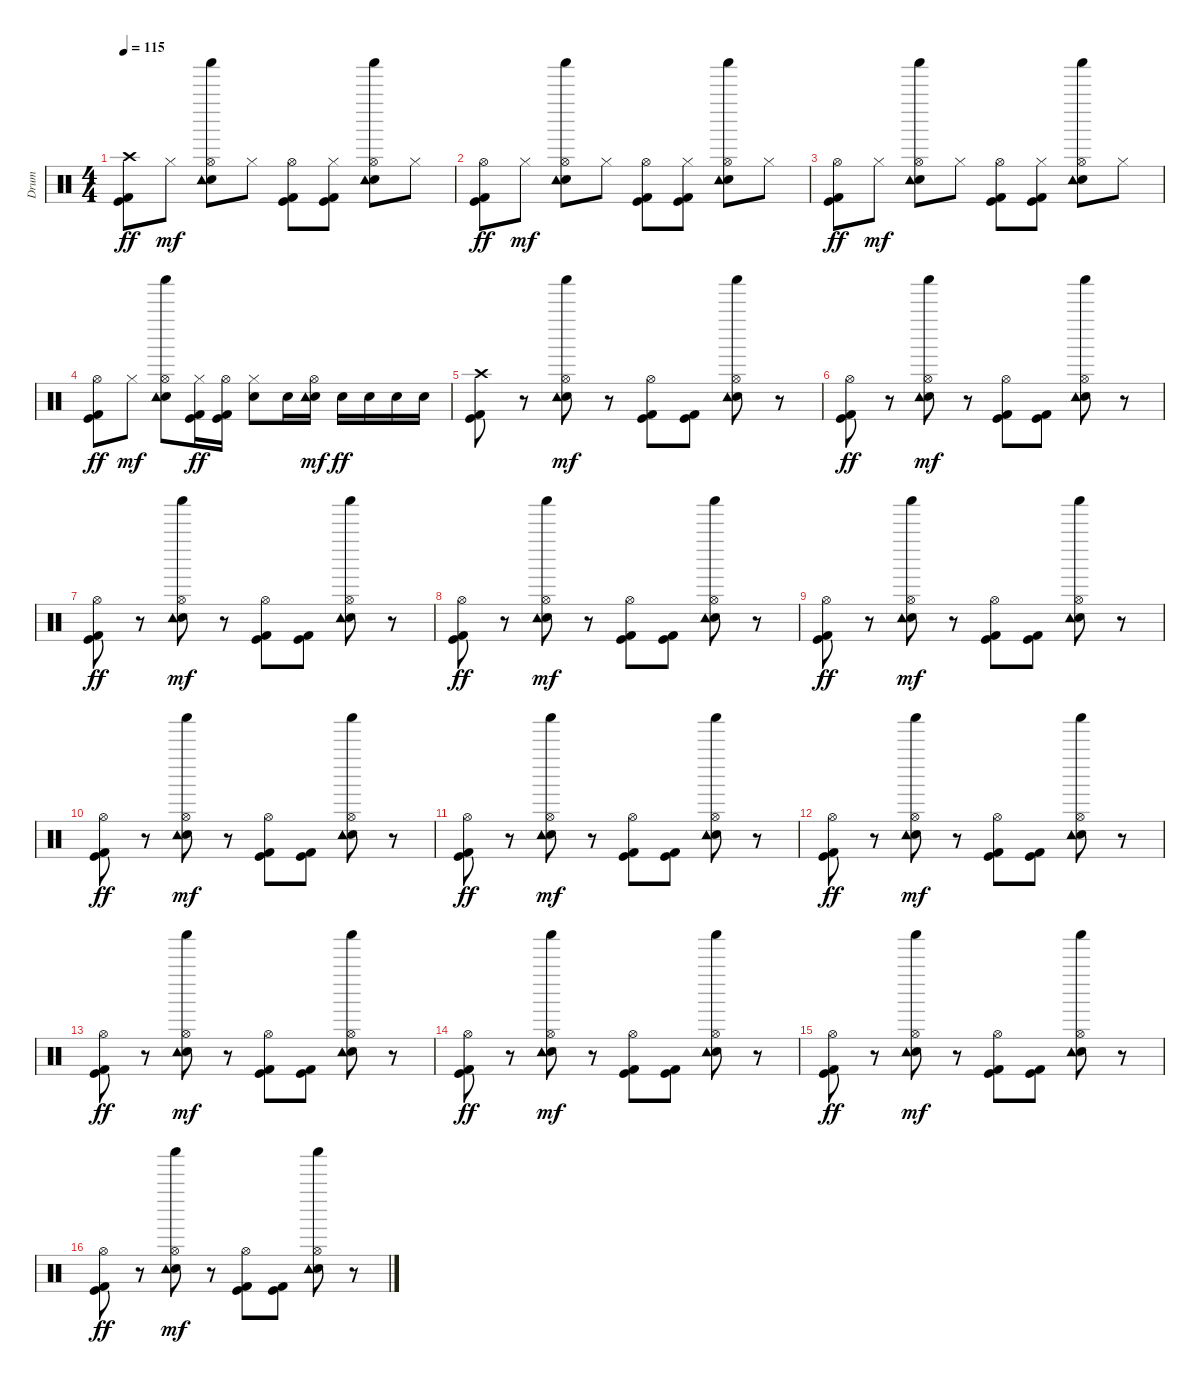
\track ("Drum" "Drum") {instrument percussion}
\staff {score}
\articulation defaults
\ts (4 4)
\tempo 115
\clef neutral
\ks c
("Crash high (hit)" "Kick (hit)" "Kick (hit) 2").8{dy ff} "Hi-Hat (closed)".8{dy mf} ("Hi-Hat (open)" "Shaker (hit)" "Snare (hit) 2" "Tambourine (hit)").8 "Hi-Hat (closed)".8 ("Hi-Hat (open)" "Kick (hit)" "Kick (hit) 2").8 ("Hi-Hat (closed)" "Kick (hit)" "Kick (hit) 2").8 ("Hi-Hat (open)" "Shaker (hit)" "Snare (hit) 2" "Tambourine (hit)").8 "Hi-Hat (closed)".8 |
("Hi-Hat (open)" "Kick (hit)" "Kick (hit) 2").8{dy ff} "Hi-Hat (closed)".8{dy mf} ("Hi-Hat (open)" "Shaker (hit)" "Snare (hit) 2" "Tambourine (hit)").8 "Hi-Hat (closed)".8 ("Hi-Hat (open)" "Kick (hit)" "Kick (hit) 2").8 ("Hi-Hat (closed)" "Kick (hit)" "Kick (hit) 2").8 ("Hi-Hat (open)" "Shaker (hit)" "Snare (hit) 2" "Tambourine (hit)").8 "Hi-Hat (closed)".8 |
("Hi-Hat (open)" "Kick (hit)" "Kick (hit) 2").8{dy ff} "Hi-Hat (closed)".8{dy mf} ("Hi-Hat (open)" "Shaker (hit)" "Snare (hit) 2" "Tambourine (hit)").8 "Hi-Hat (closed)".8 ("Hi-Hat (open)" "Kick (hit)" "Kick (hit) 2").8 ("Hi-Hat (closed)" "Kick (hit)" "Kick (hit) 2").8 ("Hi-Hat (open)" "Shaker (hit)" "Snare (hit) 2" "Tambourine (hit)").8 "Hi-Hat (closed)".8 |
("Hi-Hat (open)" "Kick (hit)" "Kick (hit) 2").8{dy ff} "Hi-Hat (closed)".8{dy mf} ("Hi-Hat (open)" "Shaker (hit)" "Snare (hit) 2" "Tambourine (hit)").8 ("Hi-Hat (closed)" "Kick (hit)" "Kick (hit) 2").16{dy ff} ("Hi-Hat (open)" "Kick (hit)" "Kick (hit) 2").16 ("Hi-Hat (closed)" "Snare (hit) 2").8 "Snare (hit) 2".16 ("Hi-Hat (open)" "Snare (hit) 2" "Tambourine (hit)").16{dy mf} "Snare (hit) 2".16{dy ff} "Snare (hit) 2".16 "Snare (hit) 2".16 "Snare (hit) 2".16 |
("Crash high (hit)" "Kick (hit)" "Kick (hit) 2").8 r.8 ("Hi-Hat (open)" "Shaker (hit)" "Snare (hit) 2" "Tambourine (hit)").8{dy mf} r.8 ("Hi-Hat (open)" "Kick (hit)" "Kick (hit) 2").8 ("Kick (hit)" "Kick (hit) 2").8 ("Hi-Hat (open)" "Shaker (hit)" "Snare (hit) 2" "Tambourine (hit)").8 r.8 |
("Hi-Hat (open)" "Kick (hit)" "Kick (hit) 2").8{dy ff} r.8 ("Hi-Hat (open)" "Shaker (hit)" "Snare (hit) 2" "Tambourine (hit)").8{dy mf} r.8 ("Hi-Hat (open)" "Kick (hit)" "Kick (hit) 2").8 ("Kick (hit)" "Kick (hit) 2").8 ("Hi-Hat (open)" "Shaker (hit)" "Snare (hit) 2" "Tambourine (hit)").8 r.8 |
("Hi-Hat (open)" "Kick (hit)" "Kick (hit) 2").8{dy ff} r.8 ("Hi-Hat (open)" "Shaker (hit)" "Snare (hit) 2" "Tambourine (hit)").8{dy mf} r.8 ("Hi-Hat (open)" "Kick (hit)" "Kick (hit) 2").8 ("Kick (hit)" "Kick (hit) 2").8 ("Hi-Hat (open)" "Shaker (hit)" "Snare (hit) 2" "Tambourine (hit)").8 r.8 |
("Hi-Hat (open)" "Kick (hit)" "Kick (hit) 2").8{dy ff} r.8 ("Hi-Hat (open)" "Shaker (hit)" "Snare (hit) 2" "Tambourine (hit)").8{dy mf} r.8 ("Hi-Hat (open)" "Kick (hit)" "Kick (hit) 2").8 ("Kick (hit)" "Kick (hit) 2").8 ("Hi-Hat (open)" "Shaker (hit)" "Snare (hit) 2" "Tambourine (hit)").8 r.8 |
("Hi-Hat (open)" "Kick (hit)" "Kick (hit) 2").8{dy ff} r.8 ("Hi-Hat (open)" "Shaker (hit)" "Snare (hit) 2" "Tambourine (hit)").8{dy mf} r.8 ("Hi-Hat (open)" "Kick (hit)" "Kick (hit) 2").8 ("Kick (hit)" "Kick (hit) 2").8 ("Hi-Hat (open)" "Shaker (hit)" "Snare (hit) 2" "Tambourine (hit)").8 r.8 |
("Hi-Hat (open)" "Kick (hit)" "Kick (hit) 2").8{dy ff} r.8 ("Hi-Hat (open)" "Shaker (hit)" "Snare (hit) 2" "Tambourine (hit)").8{dy mf} r.8 ("Hi-Hat (open)" "Kick (hit)" "Kick (hit) 2").8 ("Kick (hit)" "Kick (hit) 2").8 ("Hi-Hat (open)" "Shaker (hit)" "Snare (hit) 2" "Tambourine (hit)").8 r.8 |
("Hi-Hat (open)" "Kick (hit)" "Kick (hit) 2").8{dy ff} r.8 ("Hi-Hat (open)" "Shaker (hit)" "Snare (hit) 2" "Tambourine (hit)").8{dy mf} r.8 ("Hi-Hat (open)" "Kick (hit)" "Kick (hit) 2").8 ("Kick (hit)" "Kick (hit) 2").8 ("Hi-Hat (open)" "Shaker (hit)" "Snare (hit) 2" "Tambourine (hit)").8 r.8 |
("Hi-Hat (open)" "Kick (hit)" "Kick (hit) 2").8{dy ff} r.8 ("Hi-Hat (open)" "Shaker (hit)" "Snare (hit) 2" "Tambourine (hit)").8{dy mf} r.8 ("Hi-Hat (open)" "Kick (hit)" "Kick (hit) 2").8 ("Kick (hit)" "Kick (hit) 2").8 ("Hi-Hat (open)" "Shaker (hit)" "Snare (hit) 2" "Tambourine (hit)").8 r.8 |
("Hi-Hat (open)" "Kick (hit)" "Kick (hit) 2").8{dy ff} r.8 ("Hi-Hat (open)" "Shaker (hit)" "Snare (hit) 2" "Tambourine (hit)").8{dy mf} r.8 ("Hi-Hat (open)" "Kick (hit)" "Kick (hit) 2").8 ("Kick (hit)" "Kick (hit) 2").8 ("Hi-Hat (open)" "Shaker (hit)" "Snare (hit) 2" "Tambourine (hit)").8 r.8 |
("Hi-Hat (open)" "Kick (hit)" "Kick (hit) 2").8{dy ff} r.8 ("Hi-Hat (open)" "Shaker (hit)" "Snare (hit) 2" "Tambourine (hit)").8{dy mf} r.8 ("Hi-Hat (open)" "Kick (hit)" "Kick (hit) 2").8 ("Kick (hit)" "Kick (hit) 2").8 ("Hi-Hat (open)" "Shaker (hit)" "Snare (hit) 2" "Tambourine (hit)").8 r.8 |
("Hi-Hat (open)" "Kick (hit)" "Kick (hit) 2").8{dy ff} r.8 ("Hi-Hat (open)" "Shaker (hit)" "Snare (hit) 2" "Tambourine (hit)").8{dy mf} r.8 ("Hi-Hat (open)" "Kick (hit)" "Kick (hit) 2").8 ("Kick (hit)" "Kick (hit) 2").8 ("Hi-Hat (open)" "Shaker (hit)" "Snare (hit) 2" "Tambourine (hit)").8 r.8 |
("Hi-Hat (open)" "Kick (hit)" "Kick (hit) 2").8{dy ff} r.8 ("Hi-Hat (open)" "Shaker (hit)" "Snare (hit) 2" "Tambourine (hit)").8{dy mf} r.8 ("Hi-Hat (open)" "Kick (hit)" "Kick (hit) 2").8 ("Kick (hit)" "Kick (hit) 2").8 ("Hi-Hat (open)" "Shaker (hit)" "Snare (hit) 2" "Tambourine (hit)").8 r.8
